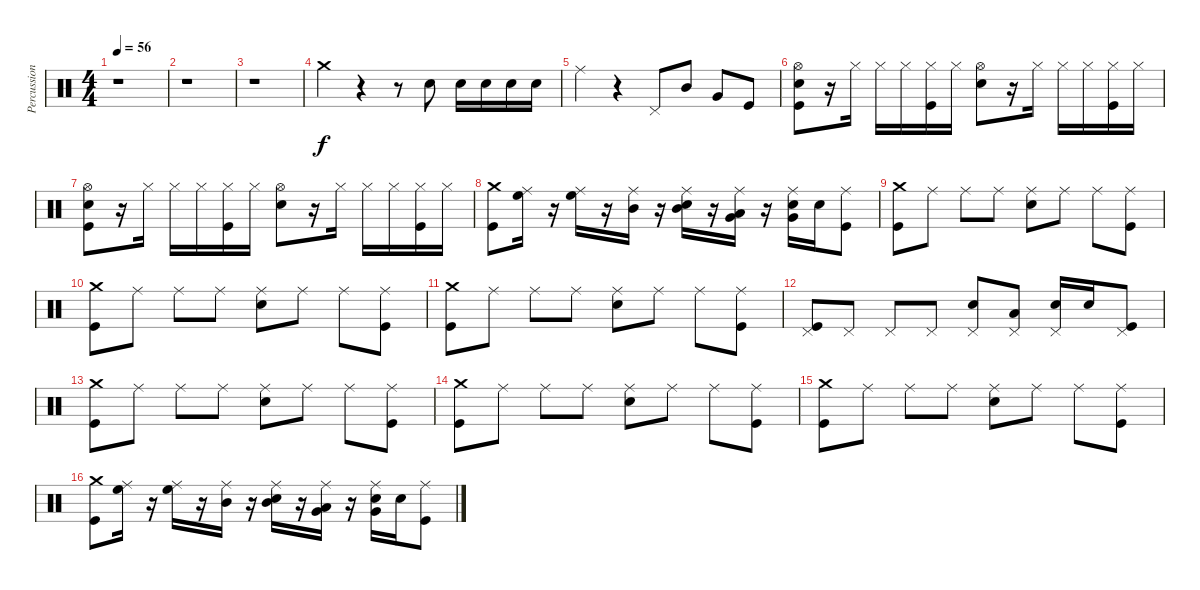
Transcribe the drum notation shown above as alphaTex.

\track ("Percussion" "Percussion") {instrument percussion}
\staff {score}
\articulation defaults
\ts (4 4)
\tempo 56
\clef neutral
\ks c
r.1{dy f} |
r.1 |
r.1 |
"Crash medium (hit)".4 r.4 r.8 "Snare (hit) 2".8 "Snare (hit) 2".16 "Snare (hit) 2".16 "Snare (hit) 2".16 "Snare (hit) 2".16 |
"Ride (middle)".4 r.4 "Pedal Hi-Hat (hit)".8 "Mid Tom (hit)".8 "Very Low Tom (hit)".8 "Kick (hit)".8 |
("Hi-Hat (open)" "Kick (hit)" "Snare (hit) 2").8 r.16 "Hi-Hat (closed)".16 "Hi-Hat (closed)".16 "Hi-Hat (closed)".16 ("Kick (hit)" "Hi-Hat (closed)").16 "Hi-Hat (closed)".16 ("Snare (hit) 2" "Hi-Hat (open)").8 r.16 "Hi-Hat (closed)".16 "Hi-Hat (closed)".16 "Hi-Hat (closed)".16 ("Kick (hit)" "Hi-Hat (closed)").16 "Hi-Hat (closed)".16 |
("Hi-Hat (open)" "Kick (hit)" "Snare (hit) 2").8 r.16 "Hi-Hat (closed)".16 "Hi-Hat (closed)".16 "Hi-Hat (closed)".16 ("Kick (hit)" "Hi-Hat (closed)").16 "Hi-Hat (closed)".16 ("Snare (hit) 2" "Hi-Hat (open)").8 r.16 "Hi-Hat (closed)".16 "Hi-Hat (closed)".16 "Hi-Hat (closed)".16 ("Kick (hit)" "Hi-Hat (closed)").16 "Hi-Hat (closed)".16 |
("Crash medium (hit)" "Kick (hit)").8 ("High Floor Tom (hit)" "Ride (middle)").16 r.16 ("High Floor Tom (hit)" "Ride (middle)").16 r.16 ("Mid Tom (hit)" "Ride (middle)").16 r.16 ("Mid Tom (hit)" "Snare (hit) 2" "Ride (middle)").16 r.16 ("Very Low Tom (hit)" "Low Floor Tom (hit)" "Ride (middle)").16 r.16 ("Very Low Tom (hit)" "Snare (hit) 2" "Ride (middle)").16 "Snare (hit) 2".16 ("Kick (hit)" "Ride (middle)").8 |
("Crash medium (hit)" "Kick (hit)").8 "Ride (middle)".8 "Ride (middle)".8 "Ride (middle)".8 ("Snare (hit) 2" "Ride (middle)").8 "Ride (middle)".8 "Ride (middle)".8 ("Kick (hit)" "Ride (middle)").8 |
("Crash medium (hit)" "Kick (hit)").8 "Ride (middle)".8 "Ride (middle)".8 "Ride (middle)".8 ("Snare (hit) 2" "Ride (middle)").8 "Ride (middle)".8 "Ride (middle)".8 ("Kick (hit)" "Ride (middle)").8 |
("Crash medium (hit)" "Kick (hit)").8 "Ride (middle)".8 "Ride (middle)".8 "Ride (middle)".8 ("Snare (hit) 2" "Ride (middle)").8 "Ride (middle)".8 "Ride (middle)".8 ("Kick (hit)" "Ride (middle)").8 |
("Pedal Hi-Hat (hit)" "Kick (hit)").8 "Pedal Hi-Hat (hit)".8 "Pedal Hi-Hat (hit)".8 "Pedal Hi-Hat (hit)".8 ("Snare (hit) 2" "Pedal Hi-Hat (hit)").8 ("Low Floor Tom (hit)" "Pedal Hi-Hat (hit)").8 ("Snare (hit) 2" "Pedal Hi-Hat (hit)").16 "Snare (hit) 2".16 ("Kick (hit)" "Pedal Hi-Hat (hit)").8 |
("Crash medium (hit)" "Kick (hit)").8 "Ride (middle)".8 "Ride (middle)".8 "Ride (middle)".8 ("Snare (hit) 2" "Ride (middle)").8 "Ride (middle)".8 "Ride (middle)".8 ("Kick (hit)" "Ride (middle)").8 |
("Crash medium (hit)" "Kick (hit)").8 "Ride (middle)".8 "Ride (middle)".8 "Ride (middle)".8 ("Snare (hit) 2" "Ride (middle)").8 "Ride (middle)".8 "Ride (middle)".8 ("Kick (hit)" "Ride (middle)").8 |
("Crash medium (hit)" "Kick (hit)").8 "Ride (middle)".8 "Ride (middle)".8 "Ride (middle)".8 ("Snare (hit) 2" "Ride (middle)").8 "Ride (middle)".8 "Ride (middle)".8 ("Kick (hit)" "Ride (middle)").8 |
("Crash medium (hit)" "Kick (hit)").8 ("High Floor Tom (hit)" "Ride (middle)").16 r.16 ("High Floor Tom (hit)" "Ride (middle)").16 r.16 ("Mid Tom (hit)" "Ride (middle)").16 r.16 ("Mid Tom (hit)" "Snare (hit) 2" "Ride (middle)").16 r.16 ("Very Low Tom (hit)" "Low Floor Tom (hit)" "Ride (middle)").16 r.16 ("Very Low Tom (hit)" "Snare (hit) 2" "Ride (middle)").16 "Snare (hit) 2".16 ("Kick (hit)" "Ride (middle)").8
